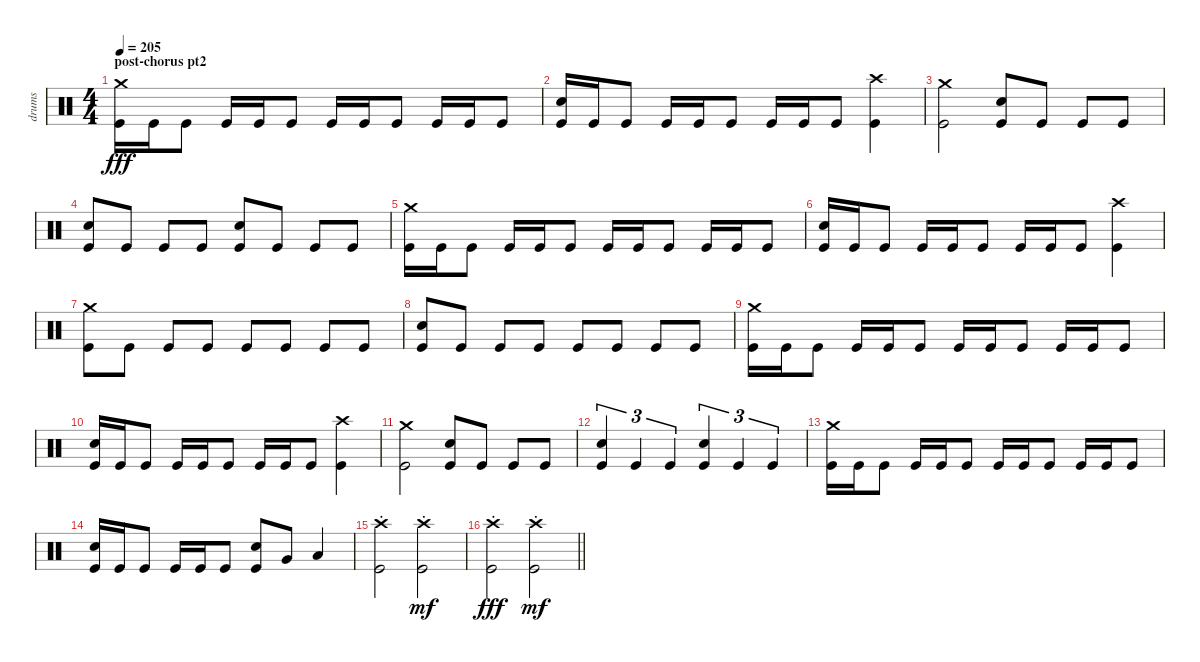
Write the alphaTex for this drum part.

\track ("drums" "drums") {instrument percussion}
\staff {score}
\articulation defaults
\ts (4 4)
\section ("" "post-chorus pt2")
\tempo 205
\clef neutral
\ks c
("Crash medium (hit)" "Kick (hit)").16{dy fff} "Kick (hit)".16 "Kick (hit)".8 "Kick (hit)".16 "Kick (hit)".16 "Kick (hit)".8 "Kick (hit)".16 "Kick (hit)".16 "Kick (hit)".8 "Kick (hit)".16 "Kick (hit)".16 "Kick (hit)".8 |
("Electric Snare (hit)" "Kick (hit)").16 "Kick (hit)".16 "Kick (hit)".8 "Kick (hit)".16 "Kick (hit)".16 "Kick (hit)".8 "Kick (hit)".16 "Kick (hit)".16 "Kick (hit)".8 ("Crash high (hit)" "Kick (hit)").4 |
("Crash medium (hit)" "Kick (hit)").2 ("Electric Snare (hit)" "Kick (hit)").8 "Kick (hit)".8 "Kick (hit)".8 "Kick (hit)".8 |
("Electric Snare (hit)" "Kick (hit)").8 "Kick (hit)".8 "Kick (hit)".8 "Kick (hit)".8 ("Electric Snare (hit)" "Kick (hit)").8 "Kick (hit)".8 "Kick (hit)".8 "Kick (hit)".8 |
("Crash medium (hit)" "Kick (hit)").16 "Kick (hit)".16 "Kick (hit)".8 "Kick (hit)".16 "Kick (hit)".16 "Kick (hit)".8 "Kick (hit)".16 "Kick (hit)".16 "Kick (hit)".8 "Kick (hit)".16 "Kick (hit)".16 "Kick (hit)".8 |
("Electric Snare (hit)" "Kick (hit)").16 "Kick (hit)".16 "Kick (hit)".8 "Kick (hit)".16 "Kick (hit)".16 "Kick (hit)".8 "Kick (hit)".16 "Kick (hit)".16 "Kick (hit)".8 ("Crash high (hit)" "Kick (hit)").4 |
("Crash medium (hit)" "Kick (hit)").8 "Kick (hit)".8 "Kick (hit)".8 "Kick (hit)".8 "Kick (hit)".8 "Kick (hit)".8 "Kick (hit)".8 "Kick (hit)".8 |
("Electric Snare (hit)" "Kick (hit)").8 "Kick (hit)".8 "Kick (hit)".8 "Kick (hit)".8 "Kick (hit)".8 "Kick (hit)".8 "Kick (hit)".8 "Kick (hit)".8 |
("Crash medium (hit)" "Kick (hit)").16 "Kick (hit)".16 "Kick (hit)".8 "Kick (hit)".16 "Kick (hit)".16 "Kick (hit)".8 "Kick (hit)".16 "Kick (hit)".16 "Kick (hit)".8 "Kick (hit)".16 "Kick (hit)".16 "Kick (hit)".8 |
("Electric Snare (hit)" "Kick (hit)").16 "Kick (hit)".16 "Kick (hit)".8 "Kick (hit)".16 "Kick (hit)".16 "Kick (hit)".8 "Kick (hit)".16 "Kick (hit)".16 "Kick (hit)".8 ("Crash high (hit)" "Kick (hit)").4 |
("Crash medium (hit)" "Kick (hit)").2 ("Electric Snare (hit)" "Kick (hit)").8 "Kick (hit)".8 "Kick (hit)".8 "Kick (hit)".8 |
("Electric Snare (hit)" "Kick (hit)").4{tu (3 2)} "Kick (hit)".4{tu (3 2)} "Kick (hit)".4{tu (3 2)} ("Electric Snare (hit)" "Kick (hit)").4{tu (3 2)} "Kick (hit)".4{tu (3 2)} "Kick (hit)".4{tu (3 2)} |
("Crash medium (hit)" "Kick (hit)").16 "Kick (hit)".16 "Kick (hit)".8 "Kick (hit)".16 "Kick (hit)".16 "Kick (hit)".8 "Kick (hit)".16 "Kick (hit)".16 "Kick (hit)".8 "Kick (hit)".16 "Kick (hit)".16 "Kick (hit)".8 |
("Electric Snare (hit)" "Kick (hit)").16 "Kick (hit)".16 "Kick (hit)".8 "Kick (hit)".16 "Kick (hit)".16 "Kick (hit)".8 ("Electric Snare (hit)" "Kick (hit)").8 "Very Low Tom (hit)".8 "Low Floor Tom (hit)".4 |
("Crash high (hit)"{st} "Kick (hit)").2 ("Crash high (hit)"{st} "Kick (hit)").2{dy mf} |
\barLineRight lightlight
("Crash high (hit)"{st} "Kick (hit)").2{dy fff} ("Crash high (hit)"{st} "Kick (hit)").2{dy mf}
